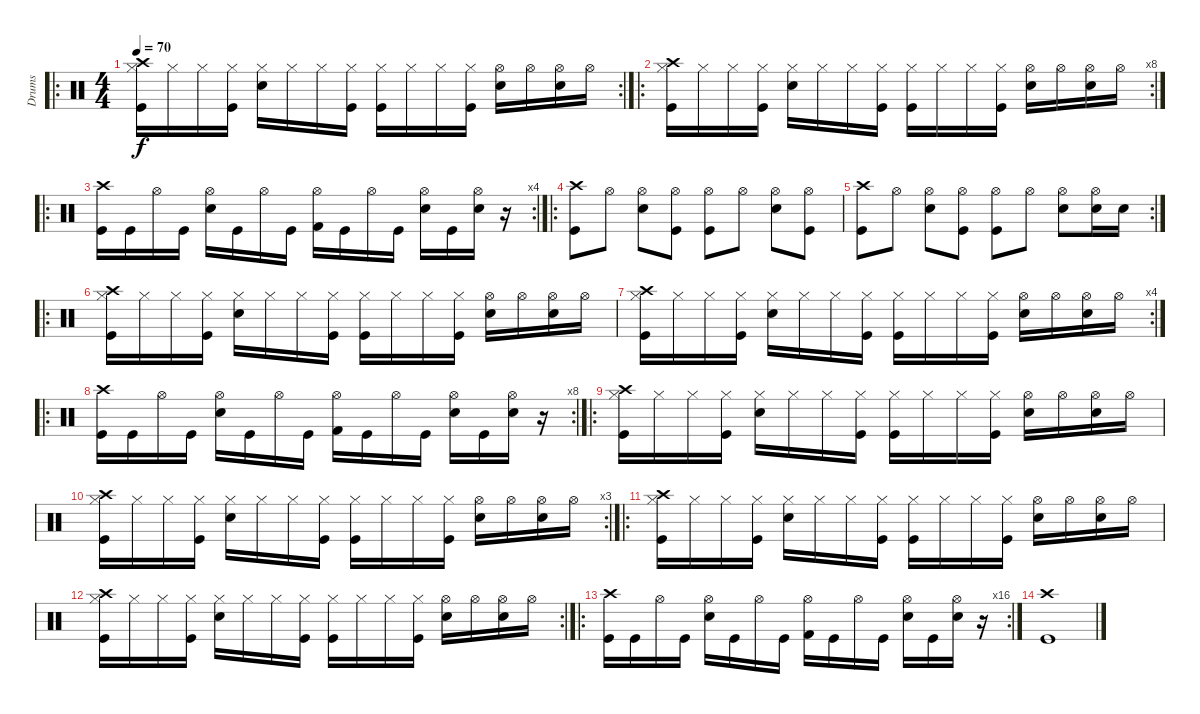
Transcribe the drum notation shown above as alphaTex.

\track ("Drums" "Drums") {instrument percussion}
\staff {score}
\articulation defaults
\ro
\rc 2
\ts (4 4)
\tempo 70
\clef neutral
\ks c
("Crash high (hit)" "Hi-Hat (closed)" "Kick (hit)").16{dy f} "Hi-Hat (closed)".16 "Hi-Hat (closed)".16 ("Hi-Hat (closed)" "Kick (hit)").16 ("Hi-Hat (closed)" "Electric Snare (hit)").16 "Hi-Hat (closed)".16 "Hi-Hat (closed)".16 ("Hi-Hat (closed)" "Kick (hit)").16 ("Hi-Hat (closed)" "Kick (hit)").16 "Hi-Hat (closed)".16 "Hi-Hat (closed)".16 ("Hi-Hat (closed)" "Kick (hit)").16 ("Hi-Hat (open)" "Electric Snare (hit)").16 "Hi-Hat (open)".16 ("Hi-Hat (open)" "Electric Snare (hit)").16 "Hi-Hat (open)".16 |
\ro
\rc 8
("Crash high (hit)" "Hi-Hat (closed)" "Kick (hit)").16 "Hi-Hat (closed)".16 "Hi-Hat (closed)".16 ("Hi-Hat (closed)" "Kick (hit)").16 ("Hi-Hat (closed)" "Electric Snare (hit)").16 "Hi-Hat (closed)".16 "Hi-Hat (closed)".16 ("Hi-Hat (closed)" "Kick (hit)").16 ("Hi-Hat (closed)" "Kick (hit)").16 "Hi-Hat (closed)".16 "Hi-Hat (closed)".16 ("Hi-Hat (closed)" "Kick (hit)").16 ("Hi-Hat (open)" "Electric Snare (hit)").16 "Hi-Hat (open)".16 ("Hi-Hat (open)" "Electric Snare (hit)").16 "Hi-Hat (open)".16 |
\ro
\rc 4
("Crash high (hit)" "Kick (hit)").16 "Kick (hit)".16 "Hi-Hat (open)".16 "Kick (hit)".16 ("Hi-Hat (open)" "Electric Snare (hit)").16 "Kick (hit)".16 "Hi-Hat (open)".16 "Kick (hit)".16 ("Hi-Hat (open)" "Kick (hit) 2").16 "Kick (hit)".16 "Hi-Hat (open)".16 "Kick (hit)".16 ("Hi-Hat (open)" "Electric Snare (hit)").16 "Kick (hit)".16 ("Hi-Hat (open)" "Electric Snare (hit)").16 r.16 |
\ro
("Crash high (hit)" "Kick (hit)").8 "Hi-Hat (open)".8 ("Hi-Hat (open)" "Electric Snare (hit)").8 ("Hi-Hat (open)" "Kick (hit)").8 ("Hi-Hat (open)" "Kick (hit)").8 "Hi-Hat (open)".8 ("Hi-Hat (open)" "Electric Snare (hit)").8 ("Hi-Hat (open)" "Kick (hit)").8 |
\rc 2
("Crash high (hit)" "Kick (hit)").8 "Hi-Hat (open)".8 ("Hi-Hat (open)" "Electric Snare (hit)").8 ("Hi-Hat (open)" "Kick (hit)").8 ("Hi-Hat (open)" "Kick (hit)").8 "Hi-Hat (open)".8 ("Hi-Hat (open)" "Electric Snare (hit)").8 ("Hi-Hat (open)" "Electric Snare (hit)").16 "Electric Snare (hit)".16 |
\ro
("Crash high (hit)" "Hi-Hat (closed)" "Kick (hit)").16 "Hi-Hat (closed)".16 "Hi-Hat (closed)".16 ("Hi-Hat (closed)" "Kick (hit)").16 ("Hi-Hat (closed)" "Electric Snare (hit)").16 "Hi-Hat (closed)".16 "Hi-Hat (closed)".16 ("Hi-Hat (closed)" "Kick (hit)").16 ("Hi-Hat (closed)" "Kick (hit)").16 "Hi-Hat (closed)".16 "Hi-Hat (closed)".16 ("Hi-Hat (closed)" "Kick (hit)").16 ("Hi-Hat (open)" "Electric Snare (hit)").16 "Hi-Hat (open)".16 ("Hi-Hat (open)" "Electric Snare (hit)").16 "Hi-Hat (open)".16 |
\rc 4
("Crash high (hit)" "Hi-Hat (closed)" "Kick (hit)").16 "Hi-Hat (closed)".16 "Hi-Hat (closed)".16 ("Hi-Hat (closed)" "Kick (hit)").16 ("Hi-Hat (closed)" "Electric Snare (hit)").16 "Hi-Hat (closed)".16 "Hi-Hat (closed)".16 ("Hi-Hat (closed)" "Kick (hit)").16 ("Hi-Hat (closed)" "Kick (hit)").16 "Hi-Hat (closed)".16 "Hi-Hat (closed)".16 ("Hi-Hat (closed)" "Kick (hit)").16 ("Hi-Hat (open)" "Electric Snare (hit)").16 "Hi-Hat (open)".16 ("Hi-Hat (open)" "Electric Snare (hit)").16 "Hi-Hat (open)".16 |
\ro
\rc 8
("Crash high (hit)" "Kick (hit)").16 "Kick (hit)".16 "Hi-Hat (open)".16 "Kick (hit)".16 ("Hi-Hat (open)" "Electric Snare (hit)").16 "Kick (hit)".16 "Hi-Hat (open)".16 "Kick (hit)".16 ("Hi-Hat (open)" "Kick (hit) 2").16 "Kick (hit)".16 "Hi-Hat (open)".16 "Kick (hit)".16 ("Hi-Hat (open)" "Electric Snare (hit)").16 "Kick (hit)".16 ("Hi-Hat (open)" "Electric Snare (hit)").16 r.16 |
\ro
("Crash high (hit)" "Hi-Hat (closed)" "Kick (hit)").16 "Hi-Hat (closed)".16 "Hi-Hat (closed)".16 ("Hi-Hat (closed)" "Kick (hit)").16 ("Hi-Hat (closed)" "Electric Snare (hit)").16 "Hi-Hat (closed)".16 "Hi-Hat (closed)".16 ("Hi-Hat (closed)" "Kick (hit)").16 ("Hi-Hat (closed)" "Kick (hit)").16 "Hi-Hat (closed)".16 "Hi-Hat (closed)".16 ("Hi-Hat (closed)" "Kick (hit)").16 ("Hi-Hat (open)" "Electric Snare (hit)").16 "Hi-Hat (open)".16 ("Hi-Hat (open)" "Electric Snare (hit)").16 "Hi-Hat (open)".16 |
\rc 3
("Crash high (hit)" "Hi-Hat (closed)" "Kick (hit)").16 "Hi-Hat (closed)".16 "Hi-Hat (closed)".16 ("Hi-Hat (closed)" "Kick (hit)").16 ("Hi-Hat (closed)" "Electric Snare (hit)").16 "Hi-Hat (closed)".16 "Hi-Hat (closed)".16 ("Hi-Hat (closed)" "Kick (hit)").16 ("Hi-Hat (closed)" "Kick (hit)").16 "Hi-Hat (closed)".16 "Hi-Hat (closed)".16 ("Hi-Hat (closed)" "Kick (hit)").16 ("Hi-Hat (open)" "Electric Snare (hit)").16 "Hi-Hat (open)".16 ("Hi-Hat (open)" "Electric Snare (hit)").16 "Hi-Hat (open)".16 |
\ro
("Crash high (hit)" "Hi-Hat (closed)" "Kick (hit)").16 "Hi-Hat (closed)".16 "Hi-Hat (closed)".16 ("Hi-Hat (closed)" "Kick (hit)").16 ("Hi-Hat (closed)" "Electric Snare (hit)").16 "Hi-Hat (closed)".16 "Hi-Hat (closed)".16 ("Hi-Hat (closed)" "Kick (hit)").16 ("Hi-Hat (closed)" "Kick (hit)").16 "Hi-Hat (closed)".16 "Hi-Hat (closed)".16 ("Hi-Hat (closed)" "Kick (hit)").16 ("Hi-Hat (open)" "Electric Snare (hit)").16 "Hi-Hat (open)".16 ("Hi-Hat (open)" "Electric Snare (hit)").16 "Hi-Hat (open)".16 |
\rc 2
("Crash high (hit)" "Hi-Hat (closed)" "Kick (hit)").16 "Hi-Hat (closed)".16 "Hi-Hat (closed)".16 ("Hi-Hat (closed)" "Kick (hit)").16 ("Hi-Hat (closed)" "Electric Snare (hit)").16 "Hi-Hat (closed)".16 "Hi-Hat (closed)".16 ("Hi-Hat (closed)" "Kick (hit)").16 ("Hi-Hat (closed)" "Kick (hit)").16 "Hi-Hat (closed)".16 "Hi-Hat (closed)".16 ("Hi-Hat (closed)" "Kick (hit)").16 ("Hi-Hat (open)" "Electric Snare (hit)").16 "Hi-Hat (open)".16 ("Hi-Hat (open)" "Electric Snare (hit)").16 "Hi-Hat (open)".16 |
\ro
\rc 16
("Crash high (hit)" "Kick (hit)").16 "Kick (hit)".16 "Hi-Hat (open)".16 "Kick (hit)".16 ("Hi-Hat (open)" "Electric Snare (hit)").16 "Kick (hit)".16 "Hi-Hat (open)".16 "Kick (hit)".16 ("Hi-Hat (open)" "Kick (hit) 2").16 "Kick (hit)".16 "Hi-Hat (open)".16 "Kick (hit)".16 ("Hi-Hat (open)" "Electric Snare (hit)").16 "Kick (hit)".16 ("Hi-Hat (open)" "Electric Snare (hit)").16 r.16 |
("Kick (hit)" "Crash high (hit)").1
